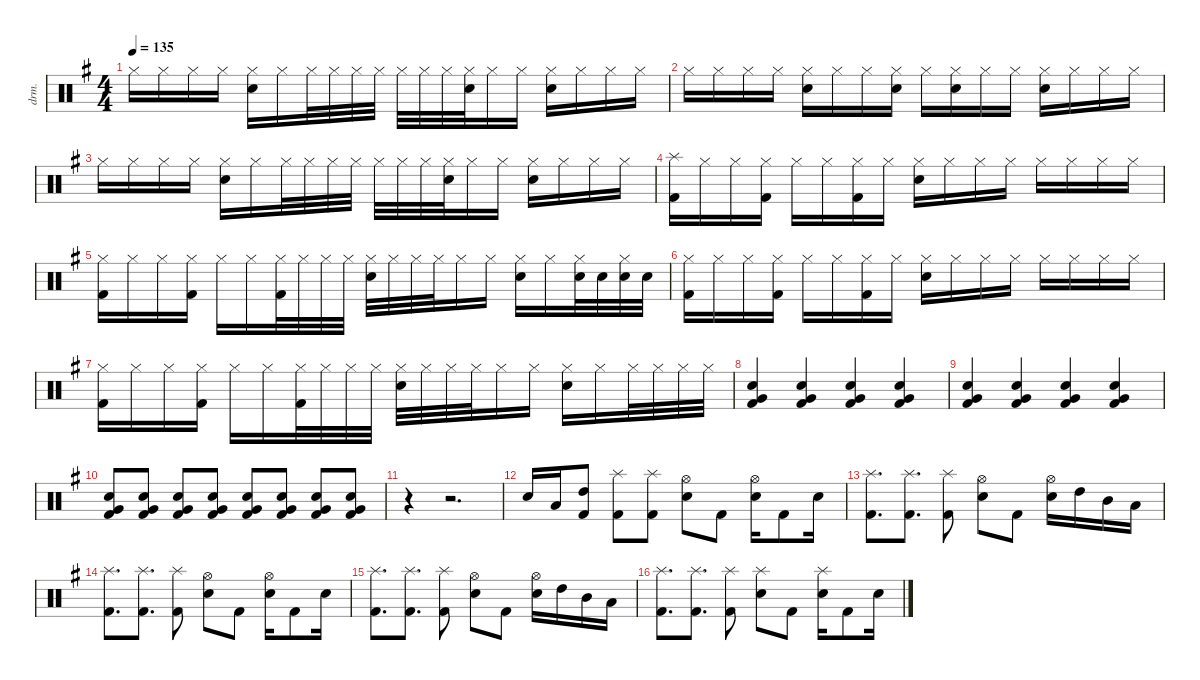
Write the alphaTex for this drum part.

\defaultSystemsLayout 4
\hideDynamics
\bracketExtendMode nobrackets
\track ("榧" "drm.") {instrument percussion}
\staff {score}
\articulation defaults
\ts (4 4)
\tempo 135
\clef neutral
\ks eminor "Hi-Hat (closed)"{acc forcenatural}.16{dy mf beam Down} "Hi-Hat (closed)"{acc forcenatural}.16{beam Down} "Hi-Hat (closed)"{acc forcenatural}.16{beam Down} "Hi-Hat (closed)"{acc forcenatural}.16{beam Down}
("Hi-Hat (closed)"{acc forcenatural} "Snare (hit) 2"{acc forcenatural}).16{beam Down} "Hi-Hat (closed)"{acc forcenatural}.16{beam Down} "Hi-Hat (closed)"{acc forcenatural}.32{beam Down} "Hi-Hat (closed)"{acc forcenatural}.32{beam Down} "Hi-Hat (closed)"{acc forcenatural}.32{beam Down} "Hi-Hat (closed)"{acc forcenatural}.32{beam Down} "Hi-Hat (closed)"{acc forcenatural}.32{beam Down} "Hi-Hat (closed)"{acc forcenatural}.32{beam Down} "Hi-Hat (closed)"{acc forcenatural}.32{beam Down} ("Hi-Hat (closed)"{acc forcenatural} "Snare (hit) 2"{acc forcenatural}).32{beam Down} "Hi-Hat (closed)"{acc forcenatural}.16{beam Down} "Hi-Hat (closed)"{acc forcenatural}.16{beam Down} ("Hi-Hat (closed)"{acc forcenatural} "Snare (hit) 2"{acc forcenatural}).16{beam Down} "Hi-Hat (closed)"{acc forcenatural}.16{beam Down} "Hi-Hat (closed)"{acc forcenatural}.16{beam Down} "Hi-Hat (closed)"{acc forcenatural}.16{beam Down} |
"Hi-Hat (closed)"{acc forcenatural}.16{beam Down} "Hi-Hat (closed)"{acc forcenatural}.16{beam Down} "Hi-Hat (closed)"{acc forcenatural}.16{beam Down} "Hi-Hat (closed)"{acc forcenatural}.16{beam Down} ("Hi-Hat (closed)"{acc forcenatural} "Snare (hit) 2"{acc forcenatural}).16{beam Down} "Hi-Hat (closed)"{acc forcenatural}.16{beam Down} "Hi-Hat (closed)"{acc forcenatural}.16{beam Down} ("Hi-Hat (closed)"{acc forcenatural} "Snare (hit) 2"{acc forcenatural}).16{beam Down} "Hi-Hat (closed)"{acc forcenatural}.16{beam Down} ("Hi-Hat (closed)"{acc forcenatural} "Snare (hit) 2"{acc forcenatural}).16{beam Down} "Hi-Hat (closed)"{acc forcenatural}.16{beam Down} "Hi-Hat (closed)"{acc forcenatural}.16{beam Down} ("Hi-Hat (closed)"{acc forcenatural} "Snare (hit) 2"{acc forcenatural}).16{beam Down} "Hi-Hat (closed)"{acc forcenatural}.16{beam Down} "Hi-Hat (closed)"{acc forcenatural}.16{beam Down} "Hi-Hat (closed)"{acc forcenatural}.16{beam Down} |
"Hi-Hat (closed)"{acc forcenatural}.16{beam Down} "Hi-Hat (closed)"{acc forcenatural}.16{beam Down} "Hi-Hat (closed)"{acc forcenatural}.16{beam Down} "Hi-Hat (closed)"{acc forcenatural}.16{beam Down} ("Hi-Hat (closed)"{acc forcenatural} "Snare (hit) 2"{acc forcenatural}).16{beam Down} "Hi-Hat (closed)"{acc forcenatural}.16{beam Down} "Hi-Hat (closed)"{acc forcenatural}.32{beam Down} "Hi-Hat (closed)"{acc forcenatural}.32{beam Down} "Hi-Hat (closed)"{acc forcenatural}.32{beam Down} "Hi-Hat (closed)"{acc forcenatural}.32{beam Down} "Hi-Hat (closed)"{acc forcenatural}.32{beam Down} "Hi-Hat (closed)"{acc forcenatural}.32{beam Down} "Hi-Hat (closed)"{acc forcenatural}.32{beam Down} ("Hi-Hat (closed)"{acc forcenatural} "Snare (hit) 2"{acc forcenatural}).32{beam Down} "Hi-Hat (closed)"{acc forcenatural}.16{beam Down} "Hi-Hat (closed)"{acc forcenatural}.16{beam Down} ("Hi-Hat (closed)"{acc forcenatural} "Snare (hit) 2"{acc forcenatural}).16{beam Down} "Hi-Hat (closed)"{acc forcenatural}.16{beam Down} "Hi-Hat (closed)"{acc forcenatural}.16{beam Down} "Hi-Hat (closed)"{acc forcenatural}.16{beam Down} |
("Splash (hit)"{acc forcenatural} "Kick (hit) 2"{acc forcenatural}).16{beam Down} "Hi-Hat (closed)"{acc forcenatural}.16{beam Down} "Hi-Hat (closed)"{acc forcenatural}.16{beam Down} ("Hi-Hat (closed)"{acc forcenatural} "Kick (hit) 2"{acc forcenatural}).16{beam Down} "Hi-Hat (closed)"{acc forcenatural}.16{beam Down} "Hi-Hat (closed)"{acc forcenatural}.16{beam Down} ("Hi-Hat (closed)"{acc forcenatural} "Kick (hit) 2"{acc forcenatural}).16{beam Down} "Hi-Hat (closed)"{acc forcenatural}.16{beam Down} ("Hi-Hat (closed)"{acc forcenatural} "Snare (hit) 2"{acc forcenatural}).16{beam Down} "Hi-Hat (closed)"{acc forcenatural}.16{beam Down} "Hi-Hat (closed)"{acc forcenatural}.16{beam Down} "Hi-Hat (closed)"{acc forcenatural}.16{beam Down} "Hi-Hat (closed)"{acc forcenatural}.16{beam Down} "Hi-Hat (closed)"{acc forcenatural}.16{beam Down} "Hi-Hat (closed)"{acc forcenatural}.16{beam Down} "Hi-Hat (closed)"{acc forcenatural}.16{beam Down} |
("Hi-Hat (closed)"{acc forcenatural} "Kick (hit) 2"{acc forcenatural}).16{beam Down} "Hi-Hat (closed)"{acc forcenatural}.16{beam Down} "Hi-Hat (closed)"{acc forcenatural}.16{beam Down} ("Hi-Hat (closed)"{acc forcenatural} "Kick (hit) 2"{acc forcenatural}).16{beam Down} "Hi-Hat (closed)"{acc forcenatural}.16{beam Down} "Hi-Hat (closed)"{acc forcenatural}.16{beam Down} ("Hi-Hat (closed)"{acc forcenatural} "Kick (hit) 2"{acc forcenatural}).32{beam Down} "Hi-Hat (closed)"{acc forcenatural}.32{beam Down} "Hi-Hat (closed)"{acc forcenatural}.32{beam Down} "Hi-Hat (closed)"{acc forcenatural}.32{beam Down} ("Hi-Hat (closed)"{acc forcenatural} "Snare (hit) 2"{acc forcenatural}).32{beam Down} "Hi-Hat (closed)"{acc forcenatural}.32{beam Down} "Hi-Hat (closed)"{acc forcenatural}.32{beam Down} "Hi-Hat (closed)"{acc forcenatural}.32{beam Down} "Hi-Hat (closed)"{acc forcenatural}.16{beam Down} "Hi-Hat (closed)"{acc forcenatural}.16{beam Down} ("Hi-Hat (closed)"{acc forcenatural} "Snare (hit) 2"{acc forcenatural}).16{beam Down} "Hi-Hat (closed)"{acc forcenatural}.16{beam Down} ("Hi-Hat (closed)"{acc forcenatural} "Snare (hit) 2"{acc forcenatural}).32{beam Down} "Snare (hit) 2"{acc forcenatural}.32{beam Down} ("Hi-Hat (closed)"{acc forcenatural} "Snare (hit) 2"{acc forcenatural}).32{beam Down} "Snare (hit) 2"{acc forcenatural}.32{beam Down} |
("Kick (hit) 2"{acc forcenatural} "Hi-Hat (closed)"{acc forcenatural}).16{beam Down} "Hi-Hat (closed)"{acc forcenatural}.16{beam Down} "Hi-Hat (closed)"{acc forcenatural}.16{beam Down} ("Hi-Hat (closed)"{acc forcenatural} "Kick (hit) 2"{acc forcenatural}).16{beam Down} "Hi-Hat (closed)"{acc forcenatural}.16{beam Down} "Hi-Hat (closed)"{acc forcenatural}.16{beam Down} ("Hi-Hat (closed)"{acc forcenatural} "Kick (hit) 2"{acc forcenatural}).16{beam Down} "Hi-Hat (closed)"{acc forcenatural}.16{beam Down} ("Hi-Hat (closed)"{acc forcenatural} "Snare (hit) 2"{acc forcenatural}).16{beam Down} "Hi-Hat (closed)"{acc forcenatural}.16{beam Down} "Hi-Hat (closed)"{acc forcenatural}.16{beam Down} "Hi-Hat (closed)"{acc forcenatural}.16{beam Down} "Hi-Hat (closed)"{acc forcenatural}.16{beam Down} "Hi-Hat (closed)"{acc forcenatural}.16{beam Down} "Hi-Hat (closed)"{acc forcenatural}.16{beam Down} "Hi-Hat (closed)"{acc forcenatural}.16{beam Down} |
("Hi-Hat (closed)"{acc forcenatural} "Kick (hit) 2"{acc forcenatural}).16{beam Down} "Hi-Hat (closed)"{acc forcenatural}.16{beam Down} "Hi-Hat (closed)"{acc forcenatural}.16{beam Down} ("Hi-Hat (closed)"{acc forcenatural} "Kick (hit) 2"{acc forcenatural}).16{beam Down} "Hi-Hat (closed)"{acc forcenatural}.16{beam Down} "Hi-Hat (closed)"{acc forcenatural}.16{beam Down} ("Hi-Hat (closed)"{acc forcenatural} "Kick (hit) 2"{acc forcenatural}).32{beam Down} "Hi-Hat (closed)"{acc forcenatural}.32{beam Down} "Hi-Hat (closed)"{acc forcenatural}.32{beam Down} "Hi-Hat (closed)"{acc forcenatural}.32{beam Down} ("Hi-Hat (closed)"{acc forcenatural} "Snare (hit) 2"{acc forcenatural}).32{beam Down} "Hi-Hat (closed)"{acc forcenatural}.32{beam Down} "Hi-Hat (closed)"{acc forcenatural}.32{beam Down} "Hi-Hat (closed)"{acc forcenatural}.32{beam Down} "Hi-Hat (closed)"{acc forcenatural}.16{beam Down} "Hi-Hat (closed)"{acc forcenatural}.16{beam Down} ("Hi-Hat (closed)"{acc forcenatural} "Snare (hit) 2"{acc forcenatural}).16{beam Down} "Hi-Hat (closed)"{acc forcenatural}.16{beam Down} "Hi-Hat (closed)"{acc forcenatural}.32{beam Down} "Hi-Hat (closed)"{acc forcenatural}.32{beam Down} "Hi-Hat (closed)"{acc forcenatural}.32{beam Down} "Hi-Hat (closed)"{acc forcenatural}.32{beam Down} |
("Snare (hit) 2"{acc forcenatural} "Very Low Tom (hit)"{acc forcenatural} "Kick (hit) 2"{acc forcenatural}).4{beam Up} ("Snare (hit) 2"{acc forcenatural} "Very Low Tom (hit)"{acc forcenatural} "Kick (hit) 2"{acc forcenatural}).4{beam Up} ("Snare (hit) 2"{acc forcenatural} "Very Low Tom (hit)"{acc forcenatural} "Kick (hit) 2"{acc forcenatural}).4{beam Up} ("Snare (hit) 2"{acc forcenatural} "Very Low Tom (hit)"{acc forcenatural} "Kick (hit) 2"{acc forcenatural}).4{beam Up} |
("Snare (hit) 2"{acc forcenatural} "Very Low Tom (hit)"{acc forcenatural} "Kick (hit) 2"{acc forcenatural}).4{beam Up} ("Snare (hit) 2"{acc forcenatural} "Very Low Tom (hit)"{acc forcenatural} "Kick (hit) 2"{acc forcenatural}).4{beam Up} ("Snare (hit) 2"{acc forcenatural} "Very Low Tom (hit)"{acc forcenatural} "Kick (hit) 2"{acc forcenatural}).4{beam Up} ("Snare (hit) 2"{acc forcenatural} "Very Low Tom (hit)"{acc forcenatural} "Kick (hit) 2"{acc forcenatural}).4{beam Up} |
("Snare (hit) 2"{acc forcenatural} "Very Low Tom (hit)"{acc forcenatural} "Kick (hit) 2"{acc forcenatural}).8{beam Up} ("Snare (hit) 2"{acc forcenatural} "Very Low Tom (hit)"{acc forcenatural} "Kick (hit) 2"{acc forcenatural}).8{beam Up} ("Snare (hit) 2"{acc forcenatural} "Very Low Tom (hit)"{acc forcenatural} "Kick (hit) 2"{acc forcenatural}).8{beam Up} ("Snare (hit) 2"{acc forcenatural} "Very Low Tom (hit)"{acc forcenatural} "Kick (hit) 2"{acc forcenatural}).8{beam Up} ("Snare (hit) 2"{acc forcenatural} "Very Low Tom (hit)"{acc forcenatural} "Kick (hit) 2"{acc forcenatural}).8{beam Up} ("Snare (hit) 2"{acc forcenatural} "Very Low Tom (hit)"{acc forcenatural} "Kick (hit) 2"{acc forcenatural}).8{beam Up} ("Snare (hit) 2"{acc forcenatural} "Very Low Tom (hit)"{acc forcenatural} "Kick (hit) 2"{acc forcenatural}).8{beam Up} ("Snare (hit) 2"{acc forcenatural} "Very Low Tom (hit)"{acc forcenatural} "Kick (hit) 2"{acc forcenatural}).8{beam Up} |
r.4{beam Down} r.2{d beam Down} |
"Snare (hit) 2"{acc forcenatural}.16{beam Up} "Low Tom (hit)"{acc forcenatural}.16{beam Up} ("Kick (hit) 2"{acc forcenatural} "High Tom (hit)"{acc forcenatural}).8{beam Up} ("Splash (hit)"{acc forcenatural} "Kick (hit) 2"{acc forcenatural}).8{beam Down} ("Kick (hit) 2"{acc forcenatural} "Splash (hit)"{acc forcenatural}).8{beam Down} ("Hi-Hat (open)"{acc forcenatural} "Snare (hit) 2"{acc forcenatural}).8{beam Down} "Kick (hit) 2"{acc forcenatural}.8{beam Down} ("Hi-Hat (open)"{acc forcenatural} "Snare (hit) 2"{acc forcenatural}).16{beam Down} "Kick (hit) 2"{acc forcenatural}.8{beam Down} "Snare (hit) 2"{acc forcenatural}.16{beam Down} |
("Splash (hit)"{acc forcenatural} "Kick (hit) 2"{acc forcenatural}).8{d beam Down} ("Kick (hit) 2"{acc forcenatural} "Splash (hit)"{acc forcenatural}).8{d beam Down} ("Splash (hit)"{acc forcenatural} "Kick (hit) 2"{acc forcenatural}).8{beam Down} ("Snare (hit) 2"{acc forcenatural} "Hi-Hat (open)"{acc forcenatural}).8{beam Down} "Kick (hit) 2"{acc forcenatural}.8{beam Down} ("Hi-Hat (open)"{acc forcenatural} "Snare (hit) 2"{acc forcenatural}).16{beam Down} "High Tom (hit)"{acc forcenatural}.16{beam Down} "Mid Tom (hit)"{acc forcenatural}.16{beam Down} "Low Tom (hit)"{acc forcenatural}.16{beam Down} |
("Splash (hit)"{acc forcenatural} "Kick (hit) 2"{acc forcenatural}).8{d beam Down} ("Kick (hit) 2"{acc forcenatural} "Splash (hit)"{acc forcenatural}).8{d beam Down} ("Splash (hit)"{acc forcenatural} "Kick (hit) 2"{acc forcenatural}).8{beam Down} ("Snare (hit) 2"{acc forcenatural} "Hi-Hat (open)"{acc forcenatural}).8{beam Down} "Kick (hit) 2"{acc forcenatural}.8{beam Down} ("Hi-Hat (open)"{acc forcenatural} "Snare (hit) 2"{acc forcenatural}).16{beam Down} "Kick (hit) 2"{acc forcenatural}.8{beam Down} "Snare (hit) 2"{acc forcenatural}.16{beam Down} |
("Splash (hit)"{acc forcenatural} "Kick (hit) 2"{acc forcenatural}).8{d beam Down} ("Kick (hit) 2"{acc forcenatural} "Splash (hit)"{acc forcenatural}).8{d beam Down} ("Splash (hit)"{acc forcenatural} "Kick (hit) 2"{acc forcenatural}).8{beam Down} ("Snare (hit) 2"{acc forcenatural} "Hi-Hat (open)"{acc forcenatural}).8{beam Down} "Kick (hit) 2"{acc forcenatural}.8{beam Down} ("Hi-Hat (open)"{acc forcenatural} "Snare (hit) 2"{acc forcenatural}).16{beam Down} "High Tom (hit)"{acc forcenatural}.16{beam Down} "Mid Tom (hit)"{acc forcenatural}.16{beam Down} "Low Tom (hit)"{acc forcenatural}.16{beam Down} |
("Splash (hit)"{acc forcenatural} "Kick (hit) 2"{acc forcenatural}).8{d beam Down} ("Kick (hit) 2"{acc forcenatural} "Splash (hit)"{acc forcenatural}).8{d beam Down} ("Splash (hit)"{acc forcenatural} "Kick (hit) 2"{acc forcenatural}).8{beam Down} ("Snare (hit) 2"{acc forcenatural} "Splash (hit)"{acc forcenatural}).8{beam Down} "Kick (hit) 2"{acc forcenatural}.8{beam Down} ("Snare (hit) 2"{acc forcenatural} "Splash (hit)"{acc forcenatural}).16{beam Down} "Kick (hit) 2"{acc forcenatural}.8{beam Down} "Snare (hit) 2"{acc forcenatural}.16{beam Down}
